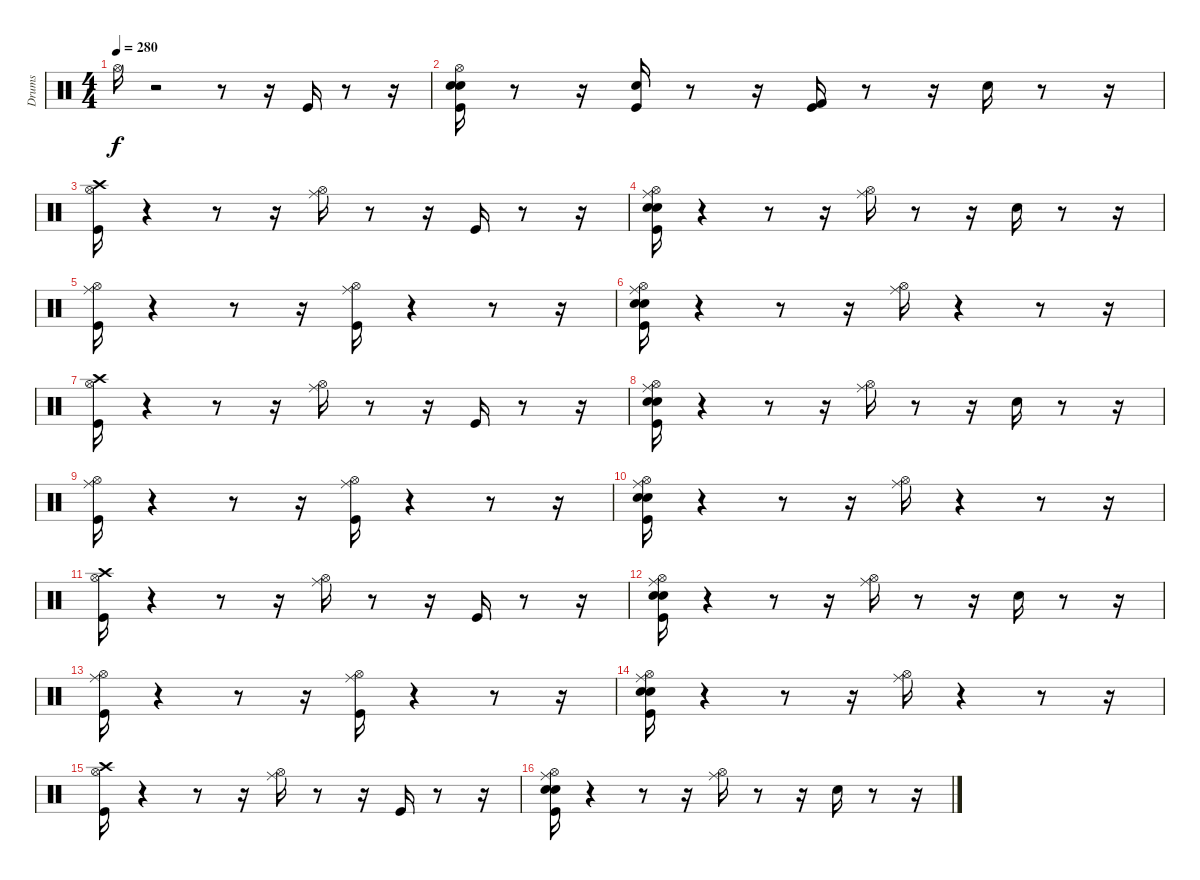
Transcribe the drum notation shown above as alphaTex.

\track ("Drums" "Drums") {instrument percussion}
\staff {score}
\articulation defaults
\ts (4 4)
\tempo 280
\clef neutral
\ks c "Hi-Hat (open)".16{dy f}
r.2 r.8 r.16 "Kick (hit)".16 r.8 r.16 |
("Snare (hit) 2" "Electric Snare (hit)" "Kick (hit)" "Hi-Hat (open)").16 r.8 r.16 ("Snare (hit) 2" "Kick (hit)").16 r.8 r.16 ("Kick (hit) 2" "Kick (hit)").16 r.8 r.16 "Snare (hit) 2".16 r.8 r.16 |
("Kick (hit)" "Hi-Hat (open)" "Crash high (hit)").16 r.4 r.8 r.16 ("Hi-Hat (open)" "Ride (middle)").16 r.8 r.16 "Kick (hit)".16 r.8 r.16 |
("Hi-Hat (open)" "Kick (hit)" "Snare (hit) 2" "Electric Snare (hit)" "Ride (middle)").16 r.4 r.8 r.16 ("Hi-Hat (open)" "Ride (middle)").16 r.8 r.16 "Snare (hit) 2".16 r.8 r.16 |
("Ride (middle)" "Hi-Hat (open)" "Kick (hit)").16 r.4 r.8 r.16 ("Hi-Hat (open)" "Ride (middle)" "Kick (hit)").16 r.4 r.8 r.16 |
("Ride (middle)" "Hi-Hat (open)" "Kick (hit)" "Snare (hit) 2" "Electric Snare (hit)").16 r.4 r.8 r.16 ("Hi-Hat (open)" "Ride (middle)").16 r.4 r.8 r.16 |
("Crash high (hit)" "Hi-Hat (open)" "Kick (hit)").16 r.4 r.8 r.16 ("Hi-Hat (open)" "Ride (middle)").16 r.8 r.16 "Kick (hit)".16 r.8 r.16 |
("Hi-Hat (open)" "Kick (hit)" "Snare (hit) 2" "Electric Snare (hit)" "Ride (middle)").16 r.4 r.8 r.16 ("Hi-Hat (open)" "Ride (middle)").16 r.8 r.16 "Snare (hit) 2".16 r.8 r.16 |
("Ride (middle)" "Hi-Hat (open)" "Kick (hit)").16 r.4 r.8 r.16 ("Hi-Hat (open)" "Ride (middle)" "Kick (hit)").16 r.4 r.8 r.16 |
("Ride (middle)" "Hi-Hat (open)" "Kick (hit)" "Snare (hit) 2" "Electric Snare (hit)").16 r.4 r.8 r.16 ("Hi-Hat (open)" "Ride (middle)").16 r.4 r.8 r.16 |
("Crash high (hit)" "Hi-Hat (open)" "Kick (hit)").16 r.4 r.8 r.16 ("Hi-Hat (open)" "Ride (middle)").16 r.8 r.16 "Kick (hit)".16 r.8 r.16 |
("Hi-Hat (open)" "Kick (hit)" "Snare (hit) 2" "Electric Snare (hit)" "Ride (middle)").16 r.4 r.8 r.16 ("Hi-Hat (open)" "Ride (middle)").16 r.8 r.16 "Snare (hit) 2".16 r.8 r.16 |
("Ride (middle)" "Hi-Hat (open)" "Kick (hit)").16 r.4 r.8 r.16 ("Hi-Hat (open)" "Ride (middle)" "Kick (hit)").16 r.4 r.8 r.16 |
("Ride (middle)" "Hi-Hat (open)" "Kick (hit)" "Snare (hit) 2" "Electric Snare (hit)").16 r.4 r.8 r.16 ("Hi-Hat (open)" "Ride (middle)").16 r.4 r.8 r.16 |
("Crash high (hit)" "Hi-Hat (open)" "Kick (hit)").16 r.4 r.8 r.16 ("Hi-Hat (open)" "Ride (middle)").16 r.8 r.16 "Kick (hit)".16 r.8 r.16 |
("Hi-Hat (open)" "Kick (hit)" "Snare (hit) 2" "Electric Snare (hit)" "Ride (middle)").16 r.4 r.8 r.16 ("Hi-Hat (open)" "Ride (middle)").16 r.8 r.16 "Snare (hit) 2".16 r.8 r.16
